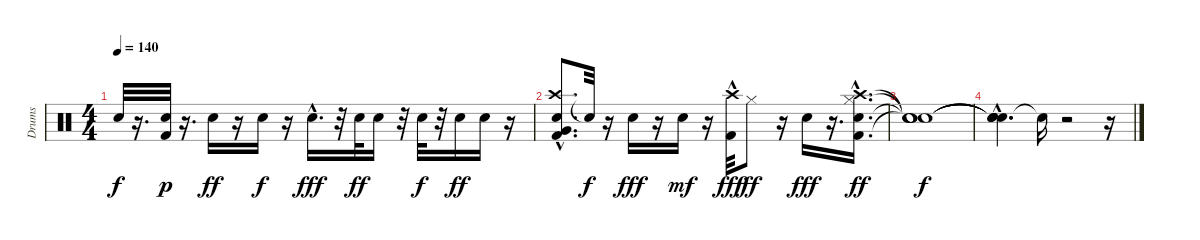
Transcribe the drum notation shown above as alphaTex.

\track ("Drums" "Drums") {instrument percussion}
\staff {score}
\articulation defaults
\ts (4 4)
\tempo 140
\clef neutral
\ks c "Snare (hit)"{t}.32{dy f}
r.16{d} ("Snare (hit) 2" "Kick (hit) 2").32{dy p} r.16{d} "Snare (hit) 2".16{dy ff} r.16 "Snare (hit) 2".16{dy f} r.16 "Snare (hit) 2"{hac}.16{d dy fff} r.32 "Snare (hit) 2".32{dy ff} "Snare (hit) 2".16 r.32 "Snare (hit) 2".32{dy f} r.32 "Snare (hit) 2".16{dy ff} "Snare (hit) 2".16 r.16 |
("Crash high (hit)"{hac} "Kick (hit) 2" "Very Low Tom (hit)" "Snare (hit) 2").8{d} "Snare (hit)"{t}.32{dy f} r.16 "Snare (hit) 2".16{dy fff} r.16 "Snare (hit) 2".16{dy mf} r.16 ("Crash high (hit)" "Kick (hit) 2"{hac}).32{dy fff} "Hi-Hat (closed)".8{dy ff} r.16 "Snare (hit) 2".16{dy fff} r.16{d} ("Kick (hit) 2"{hac} "Snare (hit) 2"{hac} "Hi-Hat (closed)"{hac} "Crash high (hit)"{hac}).16{d dy ff} |
("Snare (hit)"{t} "Snare (hit)"{t} "Snare (hit)"{t} "Snare (hit)"{t}).1{dy f} |
("Snare (hit)"{hac t} "Snare (hit)"{hac t} "Snare (hit)"{t} "Snare (hit)"{t}).4{d} "Snare (hit)"{t}.16 r.2 r.16
